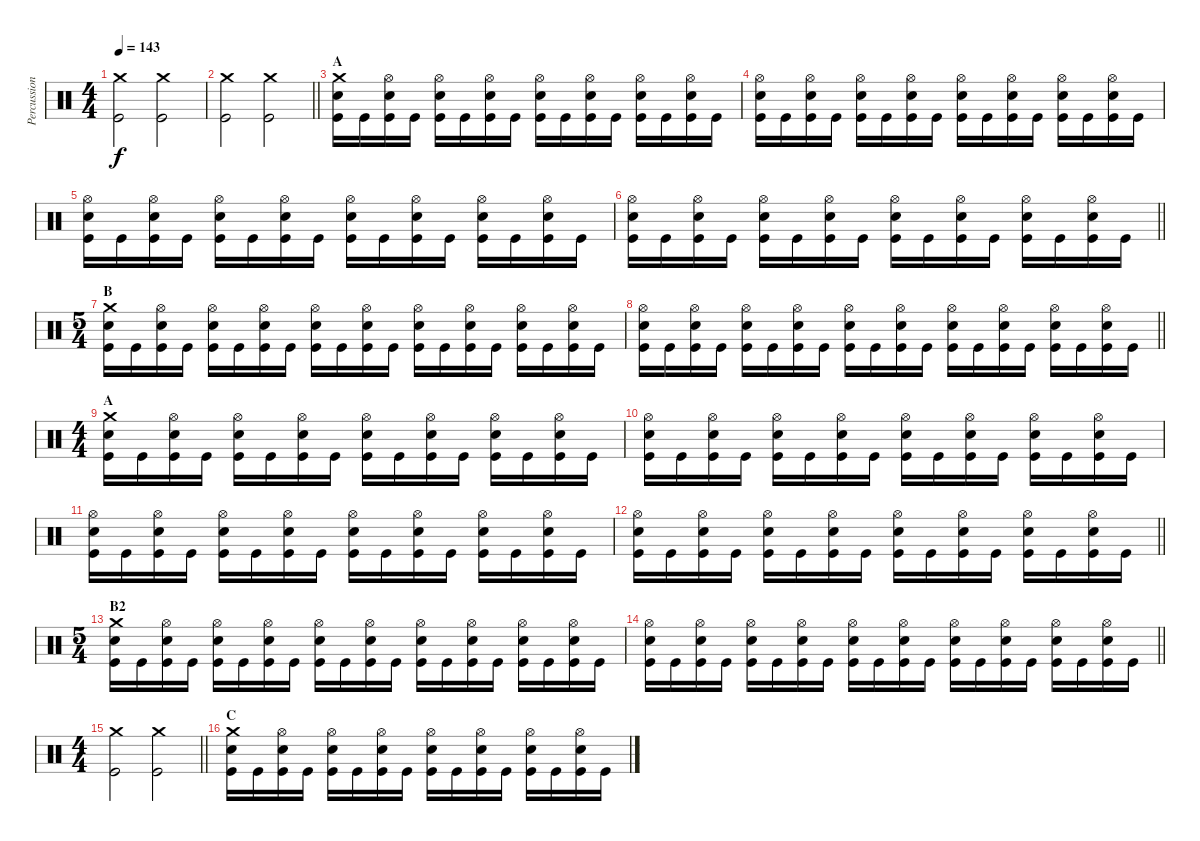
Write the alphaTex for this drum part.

\track ("Percussion" "Percussion") {instrument percussion}
\staff {score}
\articulation defaults
\ts (4 4)
\tempo 143
\clef neutral
\ks c
("Kick (hit)" "Crash medium (hit)").2{dy f} ("Kick (hit)" "Crash medium (hit)").2 |
\barLineRight lightlight
("Kick (hit)" "Crash medium (hit)").2 ("Kick (hit)" "Crash medium (hit)").2 |
\section ("" "A")
("Kick (hit)" "Snare (hit) 2" "Crash medium (hit)").16 "Kick (hit)".16 ("Kick (hit)" "Snare (hit) 2" "Hi-Hat (open)").16 "Kick (hit)".16 ("Kick (hit)" "Snare (hit) 2" "Hi-Hat (open)").16 "Kick (hit)".16 ("Kick (hit)" "Snare (hit) 2" "Hi-Hat (open)").16 "Kick (hit)".16 ("Kick (hit)" "Snare (hit) 2" "Hi-Hat (open)").16 "Kick (hit)".16 ("Kick (hit)" "Snare (hit) 2" "Hi-Hat (open)").16 "Kick (hit)".16 ("Kick (hit)" "Snare (hit) 2" "Hi-Hat (open)").16 "Kick (hit)".16 ("Kick (hit)" "Snare (hit) 2" "Hi-Hat (open)").16 "Kick (hit)".16 |
("Kick (hit)" "Snare (hit) 2" "Hi-Hat (open)").16 "Kick (hit)".16 ("Kick (hit)" "Snare (hit) 2" "Hi-Hat (open)").16 "Kick (hit)".16 ("Kick (hit)" "Snare (hit) 2" "Hi-Hat (open)").16 "Kick (hit)".16 ("Kick (hit)" "Snare (hit) 2" "Hi-Hat (open)").16 "Kick (hit)".16 ("Kick (hit)" "Snare (hit) 2" "Hi-Hat (open)").16 "Kick (hit)".16 ("Kick (hit)" "Snare (hit) 2" "Hi-Hat (open)").16 "Kick (hit)".16 ("Kick (hit)" "Snare (hit) 2" "Hi-Hat (open)").16 "Kick (hit)".16 ("Kick (hit)" "Snare (hit) 2" "Hi-Hat (open)").16 "Kick (hit)".16 |
("Kick (hit)" "Snare (hit) 2" "Hi-Hat (open)").16 "Kick (hit)".16 ("Kick (hit)" "Snare (hit) 2" "Hi-Hat (open)").16 "Kick (hit)".16 ("Kick (hit)" "Snare (hit) 2" "Hi-Hat (open)").16 "Kick (hit)".16 ("Kick (hit)" "Snare (hit) 2" "Hi-Hat (open)").16 "Kick (hit)".16 ("Kick (hit)" "Snare (hit) 2" "Hi-Hat (open)").16 "Kick (hit)".16 ("Kick (hit)" "Snare (hit) 2" "Hi-Hat (open)").16 "Kick (hit)".16 ("Kick (hit)" "Snare (hit) 2" "Hi-Hat (open)").16 "Kick (hit)".16 ("Kick (hit)" "Snare (hit) 2" "Hi-Hat (open)").16 "Kick (hit)".16 |
\barLineRight lightlight
("Kick (hit)" "Snare (hit) 2" "Hi-Hat (open)").16 "Kick (hit)".16 ("Kick (hit)" "Snare (hit) 2" "Hi-Hat (open)").16 "Kick (hit)".16 ("Kick (hit)" "Snare (hit) 2" "Hi-Hat (open)").16 "Kick (hit)".16 ("Kick (hit)" "Snare (hit) 2" "Hi-Hat (open)").16 "Kick (hit)".16 ("Kick (hit)" "Snare (hit) 2" "Hi-Hat (open)").16 "Kick (hit)".16 ("Kick (hit)" "Snare (hit) 2" "Hi-Hat (open)").16 "Kick (hit)".16 ("Kick (hit)" "Snare (hit) 2" "Hi-Hat (open)").16 "Kick (hit)".16 ("Kick (hit)" "Snare (hit) 2" "Hi-Hat (open)").16 "Kick (hit)".16 |
\ts (5 4)
\section ("" "B")
("Kick (hit)" "Snare (hit) 2" "Crash medium (hit)").16 "Kick (hit)".16 ("Kick (hit)" "Snare (hit) 2" "Hi-Hat (open)").16 "Kick (hit)".16 ("Kick (hit)" "Snare (hit) 2" "Hi-Hat (open)").16 "Kick (hit)".16 ("Kick (hit)" "Snare (hit) 2" "Hi-Hat (open)").16 "Kick (hit)".16 ("Kick (hit)" "Snare (hit) 2" "Hi-Hat (open)").16 "Kick (hit)".16 ("Kick (hit)" "Snare (hit) 2" "Hi-Hat (open)").16 "Kick (hit)".16 ("Kick (hit)" "Snare (hit) 2" "Hi-Hat (open)").16 "Kick (hit)".16 ("Kick (hit)" "Snare (hit) 2" "Hi-Hat (open)").16 "Kick (hit)".16 ("Kick (hit)" "Snare (hit) 2" "Hi-Hat (open)").16 "Kick (hit)".16 ("Kick (hit)" "Snare (hit) 2" "Hi-Hat (open)").16 "Kick (hit)".16 |
\barLineRight lightlight
("Kick (hit)" "Snare (hit) 2" "Hi-Hat (open)").16 "Kick (hit)".16 ("Kick (hit)" "Snare (hit) 2" "Hi-Hat (open)").16 "Kick (hit)".16 ("Kick (hit)" "Snare (hit) 2" "Hi-Hat (open)").16 "Kick (hit)".16 ("Kick (hit)" "Snare (hit) 2" "Hi-Hat (open)").16 "Kick (hit)".16 ("Kick (hit)" "Snare (hit) 2" "Hi-Hat (open)").16 "Kick (hit)".16 ("Kick (hit)" "Snare (hit) 2" "Hi-Hat (open)").16 "Kick (hit)".16 ("Kick (hit)" "Snare (hit) 2" "Hi-Hat (open)").16 "Kick (hit)".16 ("Kick (hit)" "Snare (hit) 2" "Hi-Hat (open)").16 "Kick (hit)".16 ("Kick (hit)" "Snare (hit) 2" "Hi-Hat (open)").16 "Kick (hit)".16 ("Kick (hit)" "Snare (hit) 2" "Hi-Hat (open)").16 "Kick (hit)".16 |
\ts (4 4)
\section ("" "A")
("Kick (hit)" "Snare (hit) 2" "Crash medium (hit)").16 "Kick (hit)".16 ("Kick (hit)" "Snare (hit) 2" "Hi-Hat (open)").16 "Kick (hit)".16 ("Kick (hit)" "Snare (hit) 2" "Hi-Hat (open)").16 "Kick (hit)".16 ("Kick (hit)" "Snare (hit) 2" "Hi-Hat (open)").16 "Kick (hit)".16 ("Kick (hit)" "Snare (hit) 2" "Hi-Hat (open)").16 "Kick (hit)".16 ("Kick (hit)" "Snare (hit) 2" "Hi-Hat (open)").16 "Kick (hit)".16 ("Kick (hit)" "Snare (hit) 2" "Hi-Hat (open)").16 "Kick (hit)".16 ("Kick (hit)" "Snare (hit) 2" "Hi-Hat (open)").16 "Kick (hit)".16 |
("Kick (hit)" "Snare (hit) 2" "Hi-Hat (open)").16 "Kick (hit)".16 ("Kick (hit)" "Snare (hit) 2" "Hi-Hat (open)").16 "Kick (hit)".16 ("Kick (hit)" "Snare (hit) 2" "Hi-Hat (open)").16 "Kick (hit)".16 ("Kick (hit)" "Snare (hit) 2" "Hi-Hat (open)").16 "Kick (hit)".16 ("Kick (hit)" "Snare (hit) 2" "Hi-Hat (open)").16 "Kick (hit)".16 ("Kick (hit)" "Snare (hit) 2" "Hi-Hat (open)").16 "Kick (hit)".16 ("Kick (hit)" "Snare (hit) 2" "Hi-Hat (open)").16 "Kick (hit)".16 ("Kick (hit)" "Snare (hit) 2" "Hi-Hat (open)").16 "Kick (hit)".16 |
("Kick (hit)" "Snare (hit) 2" "Hi-Hat (open)").16 "Kick (hit)".16 ("Kick (hit)" "Snare (hit) 2" "Hi-Hat (open)").16 "Kick (hit)".16 ("Kick (hit)" "Snare (hit) 2" "Hi-Hat (open)").16 "Kick (hit)".16 ("Kick (hit)" "Snare (hit) 2" "Hi-Hat (open)").16 "Kick (hit)".16 ("Kick (hit)" "Snare (hit) 2" "Hi-Hat (open)").16 "Kick (hit)".16 ("Kick (hit)" "Snare (hit) 2" "Hi-Hat (open)").16 "Kick (hit)".16 ("Kick (hit)" "Snare (hit) 2" "Hi-Hat (open)").16 "Kick (hit)".16 ("Kick (hit)" "Snare (hit) 2" "Hi-Hat (open)").16 "Kick (hit)".16 |
\barLineRight lightlight
("Kick (hit)" "Snare (hit) 2" "Hi-Hat (open)").16 "Kick (hit)".16 ("Kick (hit)" "Snare (hit) 2" "Hi-Hat (open)").16 "Kick (hit)".16 ("Kick (hit)" "Snare (hit) 2" "Hi-Hat (open)").16 "Kick (hit)".16 ("Kick (hit)" "Snare (hit) 2" "Hi-Hat (open)").16 "Kick (hit)".16 ("Kick (hit)" "Snare (hit) 2" "Hi-Hat (open)").16 "Kick (hit)".16 ("Kick (hit)" "Snare (hit) 2" "Hi-Hat (open)").16 "Kick (hit)".16 ("Kick (hit)" "Snare (hit) 2" "Hi-Hat (open)").16 "Kick (hit)".16 ("Kick (hit)" "Snare (hit) 2" "Hi-Hat (open)").16 "Kick (hit)".16 |
\ts (5 4)
\section ("" "B2")
("Kick (hit)" "Snare (hit) 2" "Crash medium (hit)").16 "Kick (hit)".16 ("Kick (hit)" "Snare (hit) 2" "Hi-Hat (open)").16 "Kick (hit)".16 ("Kick (hit)" "Snare (hit) 2" "Hi-Hat (open)").16 "Kick (hit)".16 ("Kick (hit)" "Snare (hit) 2" "Hi-Hat (open)").16 "Kick (hit)".16 ("Kick (hit)" "Snare (hit) 2" "Hi-Hat (open)").16 "Kick (hit)".16 ("Kick (hit)" "Snare (hit) 2" "Hi-Hat (open)").16 "Kick (hit)".16 ("Kick (hit)" "Snare (hit) 2" "Hi-Hat (open)").16 "Kick (hit)".16 ("Kick (hit)" "Snare (hit) 2" "Hi-Hat (open)").16 "Kick (hit)".16 ("Kick (hit)" "Snare (hit) 2" "Hi-Hat (open)").16 "Kick (hit)".16 ("Kick (hit)" "Snare (hit) 2" "Hi-Hat (open)").16 "Kick (hit)".16 |
\barLineRight lightlight
("Kick (hit)" "Snare (hit) 2" "Hi-Hat (open)").16 "Kick (hit)".16 ("Kick (hit)" "Snare (hit) 2" "Hi-Hat (open)").16 "Kick (hit)".16 ("Kick (hit)" "Snare (hit) 2" "Hi-Hat (open)").16 "Kick (hit)".16 ("Kick (hit)" "Snare (hit) 2" "Hi-Hat (open)").16 "Kick (hit)".16 ("Kick (hit)" "Snare (hit) 2" "Hi-Hat (open)").16 "Kick (hit)".16 ("Kick (hit)" "Snare (hit) 2" "Hi-Hat (open)").16 "Kick (hit)".16 ("Kick (hit)" "Snare (hit) 2" "Hi-Hat (open)").16 "Kick (hit)".16 ("Kick (hit)" "Snare (hit) 2" "Hi-Hat (open)").16 "Kick (hit)".16 ("Kick (hit)" "Snare (hit) 2" "Hi-Hat (open)").16 "Kick (hit)".16 ("Kick (hit)" "Snare (hit) 2" "Hi-Hat (open)").16 "Kick (hit)".16 |
\ts (4 4)
\barLineRight lightlight
("Kick (hit)" "Crash medium (hit)").2 ("Kick (hit)" "Crash medium (hit)").2 |
\section ("" "C")
("Kick (hit)" "Snare (hit) 2" "Crash medium (hit)").16 "Kick (hit)".16 ("Kick (hit)" "Snare (hit) 2" "Hi-Hat (open)").16 "Kick (hit)".16 ("Kick (hit)" "Snare (hit) 2" "Hi-Hat (open)").16 "Kick (hit)".16 ("Kick (hit)" "Snare (hit) 2" "Hi-Hat (open)").16 "Kick (hit)".16 ("Kick (hit)" "Snare (hit) 2" "Hi-Hat (open)").16 "Kick (hit)".16 ("Kick (hit)" "Snare (hit) 2" "Hi-Hat (open)").16 "Kick (hit)".16 ("Kick (hit)" "Snare (hit) 2" "Hi-Hat (open)").16 "Kick (hit)".16 ("Kick (hit)" "Snare (hit) 2" "Hi-Hat (open)").16 "Kick (hit)".16
